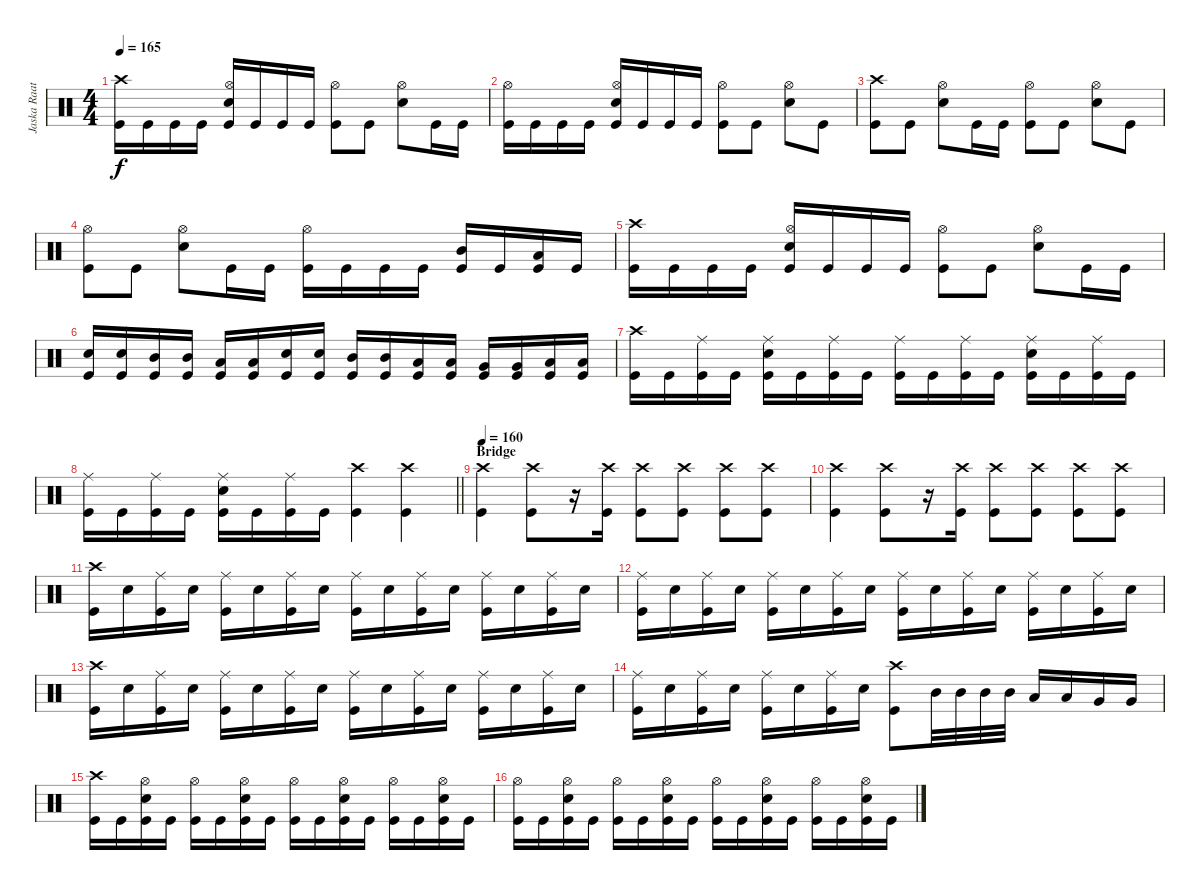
\track ("Jaska Raatikainen" "Jaska Raat") {instrument percussion}
\staff {score}
\articulation defaults
\ts (4 4)
\tempo 165
\clef neutral
\ks c
("Crash high (hit)" "Kick (hit)").16{dy f} "Kick (hit)".16 "Kick (hit)".16 "Kick (hit)".16 ("Hi-Hat (open)" "Electric Snare (hit)" "Kick (hit)").16 "Kick (hit)".16 "Kick (hit)".16 "Kick (hit)".16 ("Hi-Hat (open)" "Kick (hit)").8 "Kick (hit)".8 ("Hi-Hat (open)" "Electric Snare (hit)").8 "Kick (hit)".16 "Kick (hit)".16 |
("Hi-Hat (open)" "Kick (hit)").16 "Kick (hit)".16 "Kick (hit)".16 "Kick (hit)".16 ("Hi-Hat (open)" "Electric Snare (hit)" "Kick (hit)").16 "Kick (hit)".16 "Kick (hit)".16 "Kick (hit)".16 ("Hi-Hat (open)" "Kick (hit)").8 "Kick (hit)".8 ("Hi-Hat (open)" "Electric Snare (hit)").8 "Kick (hit)".8 |
("Crash high (hit)" "Kick (hit)").8 "Kick (hit)".8 ("Hi-Hat (open)" "Electric Snare (hit)").8 "Kick (hit)".16 "Kick (hit)".16 ("Hi-Hat (open)" "Kick (hit)").8 "Kick (hit)".8 ("Hi-Hat (open)" "Electric Snare (hit)").8 "Kick (hit)".8 |
("Hi-Hat (open)" "Kick (hit)").8 "Kick (hit)".8 ("Hi-Hat (open)" "Electric Snare (hit)").8 "Kick (hit)".16 "Kick (hit)".16 ("Hi-Hat (open)" "Kick (hit)").16 "Kick (hit)".16 "Kick (hit)".16 "Kick (hit)".16 ("Mid Tom (hit)" "Kick (hit)").16 "Kick (hit)".16 ("Low Tom (hit)" "Kick (hit)").16 "Kick (hit)".16 |
("Crash high (hit)" "Kick (hit)").16 "Kick (hit)".16 "Kick (hit)".16 "Kick (hit)".16 ("Hi-Hat (open)" "Electric Snare (hit)" "Kick (hit)").16 "Kick (hit)".16 "Kick (hit)".16 "Kick (hit)".16 ("Hi-Hat (open)" "Kick (hit)").8 "Kick (hit)".8 ("Hi-Hat (open)" "Electric Snare (hit)").8 "Kick (hit)".16 "Kick (hit)".16 |
("Electric Snare (hit)" "Kick (hit)").16 ("Electric Snare (hit)" "Kick (hit)").16 ("Mid Tom (hit)" "Kick (hit)").16 ("Mid Tom (hit)" "Kick (hit)").16 ("Low Tom (hit)" "Kick (hit)").16 ("Low Tom (hit)" "Kick (hit)").16 ("Electric Snare (hit)" "Kick (hit)").16 ("Electric Snare (hit)" "Kick (hit)").16 ("Mid Tom (hit)" "Kick (hit)").16 ("Mid Tom (hit)" "Kick (hit)").16 ("Low Tom (hit)" "Kick (hit)").16 ("Low Tom (hit)" "Kick (hit)").16 ("Very Low Tom (hit)" "Kick (hit)").16 ("Very Low Tom (hit)" "Kick (hit)").16 ("Low Floor Tom (hit)" "Kick (hit)").16 ("Low Floor Tom (hit)" "Kick (hit)").16 |
("Crash high (hit)" "Kick (hit)").16 "Kick (hit)".16 ("Ride (middle)" "Kick (hit)").16 "Kick (hit)".16 ("Ride (middle)" "Electric Snare (hit)" "Kick (hit)").16 "Kick (hit)".16 ("Ride (middle)" "Kick (hit)").16 "Kick (hit)".16 ("Ride (middle)" "Kick (hit)").16 "Kick (hit)".16 ("Ride (middle)" "Kick (hit)").16 "Kick (hit)".16 ("Ride (middle)" "Electric Snare (hit)" "Kick (hit)").16 "Kick (hit)".16 ("Ride (middle)" "Kick (hit)").16 "Kick (hit)".16 |
\barLineRight lightlight
("Ride (middle)" "Kick (hit)").16 "Kick (hit)".16 ("Ride (middle)" "Kick (hit)").16 "Kick (hit)".16 ("Ride (middle)" "Electric Snare (hit)" "Kick (hit)").16 "Kick (hit)".16 ("Ride (middle)" "Kick (hit)").16 "Kick (hit)".16 ("Crash high (hit)" "Kick (hit)").4 ("Crash high (hit)" "Kick (hit)").4 |
\section ("" "Bridge")
\tempo 160
("Crash high (hit)" "Kick (hit)").4 ("Crash high (hit)" "Kick (hit)").8 r.16 ("Crash high (hit)" "Kick (hit)").16 ("Crash high (hit)" "Kick (hit)").8 ("Crash high (hit)" "Kick (hit)").8 ("Crash high (hit)" "Kick (hit)").8 ("Crash high (hit)" "Kick (hit)").8 |
("Crash high (hit)" "Kick (hit)").4 ("Crash high (hit)" "Kick (hit)").8 r.16 ("Crash high (hit)" "Kick (hit)").16 ("Crash high (hit)" "Kick (hit)").8 ("Crash high (hit)" "Kick (hit)").8 ("Crash high (hit)" "Kick (hit)").8 ("Crash high (hit)" "Kick (hit)").8 |
("Crash high (hit)" "Kick (hit)").16 "Electric Snare (hit)".16 ("Ride (middle)" "Kick (hit)").16 "Electric Snare (hit)".16 ("Ride (middle)" "Kick (hit)").16 "Electric Snare (hit)".16 ("Ride (middle)" "Kick (hit)").16 "Electric Snare (hit)".16 ("Ride (middle)" "Kick (hit)").16 "Electric Snare (hit)".16 ("Ride (middle)" "Kick (hit)").16 "Electric Snare (hit)".16 ("Ride (middle)" "Kick (hit)").16 "Electric Snare (hit)".16 ("Ride (middle)" "Kick (hit)").16 "Electric Snare (hit)".16 |
("Ride (middle)" "Kick (hit)").16 "Electric Snare (hit)".16 ("Ride (middle)" "Kick (hit)").16 "Electric Snare (hit)".16 ("Ride (middle)" "Kick (hit)").16 "Electric Snare (hit)".16 ("Ride (middle)" "Kick (hit)").16 "Electric Snare (hit)".16 ("Ride (middle)" "Kick (hit)").16 "Electric Snare (hit)".16 ("Ride (middle)" "Kick (hit)").16 "Electric Snare (hit)".16 ("Ride (middle)" "Kick (hit)").16 "Electric Snare (hit)".16 ("Ride (middle)" "Kick (hit)").16 "Electric Snare (hit)".16 |
("Crash high (hit)" "Kick (hit)").16 "Electric Snare (hit)".16 ("Ride (middle)" "Kick (hit)").16 "Electric Snare (hit)".16 ("Ride (middle)" "Kick (hit)").16 "Electric Snare (hit)".16 ("Ride (middle)" "Kick (hit)").16 "Electric Snare (hit)".16 ("Ride (middle)" "Kick (hit)").16 "Electric Snare (hit)".16 ("Ride (middle)" "Kick (hit)").16 "Electric Snare (hit)".16 ("Ride (middle)" "Kick (hit)").16 "Electric Snare (hit)".16 ("Ride (middle)" "Kick (hit)").16 "Electric Snare (hit)".16 |
("Ride (middle)" "Kick (hit)").16 "Electric Snare (hit)".16 ("Ride (middle)" "Kick (hit)").16 "Electric Snare (hit)".16 ("Ride (middle)" "Kick (hit)").16 "Electric Snare (hit)".16 ("Ride (middle)" "Kick (hit)").16 "Electric Snare (hit)".16 ("Crash high (hit)" "Kick (hit)").8 "Mid Tom (hit)".32 "Mid Tom (hit)".32 "Mid Tom (hit)".32 "Mid Tom (hit)".32 "Low Tom (hit)".16 "Low Tom (hit)".16 "Very Low Tom (hit)".16 "Very Low Tom (hit)".16 |
("Crash high (hit)" "Kick (hit)").16 "Kick (hit)".16 ("Hi-Hat (open)" "Electric Snare (hit)" "Kick (hit)").16 "Kick (hit)".16 ("Hi-Hat (open)" "Kick (hit)").16 "Kick (hit)".16 ("Hi-Hat (open)" "Electric Snare (hit)" "Kick (hit)").16 "Kick (hit)".16 ("Hi-Hat (open)" "Kick (hit)").16 "Kick (hit)".16 ("Hi-Hat (open)" "Electric Snare (hit)" "Kick (hit)").16 "Kick (hit)".16 ("Hi-Hat (open)" "Kick (hit)").16 "Kick (hit)".16 ("Hi-Hat (open)" "Electric Snare (hit)" "Kick (hit)").16 "Kick (hit)".16 |
("Hi-Hat (open)" "Kick (hit)").16 "Kick (hit)".16 ("Hi-Hat (open)" "Electric Snare (hit)" "Kick (hit)").16 "Kick (hit)".16 ("Hi-Hat (open)" "Kick (hit)").16 "Kick (hit)".16 ("Hi-Hat (open)" "Electric Snare (hit)" "Kick (hit)").16 "Kick (hit)".16 ("Hi-Hat (open)" "Kick (hit)").16 "Kick (hit)".16 ("Hi-Hat (open)" "Electric Snare (hit)" "Kick (hit)").16 "Kick (hit)".16 ("Hi-Hat (open)" "Kick (hit)").16 "Kick (hit)".16 ("Hi-Hat (open)" "Electric Snare (hit)" "Kick (hit)").16 "Kick (hit)".16
